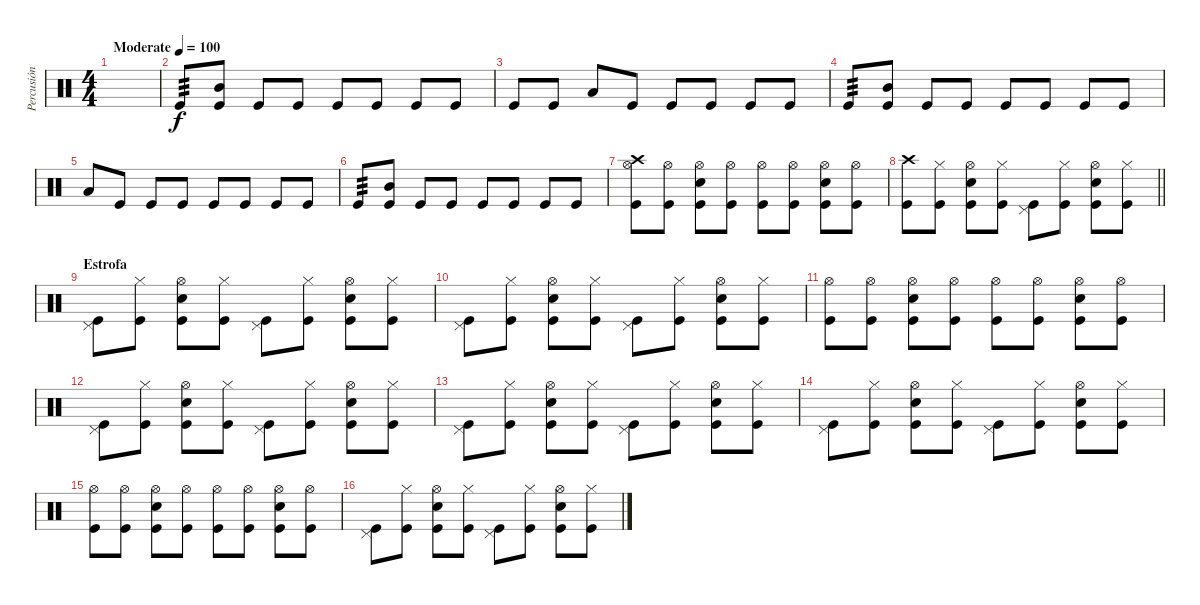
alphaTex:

\track ("Percusión" "Percusión") {instrument percussion}
\staff {score}
\articulation defaults
\ts (4 4)
\tempo (100 "Moderate")
\clef neutral
\ks c
|
"Kick (hit)".8{tp 3} ("Mid Tom (hit)" "Kick (hit)").8 "Kick (hit)".8 "Kick (hit)".8 "Kick (hit)".8 "Kick (hit)".8 "Kick (hit)".8 "Kick (hit)".8 |
"Kick (hit)".8 "Kick (hit)".8 "Low Tom (hit)".8 "Kick (hit)".8 "Kick (hit)".8 "Kick (hit)".8 "Kick (hit)".8 "Kick (hit)".8 |
"Kick (hit)".8{tp 3} ("Mid Tom (hit)" "Kick (hit)").8 "Kick (hit)".8 "Kick (hit)".8 "Kick (hit)".8 "Kick (hit)".8 "Kick (hit)".8 "Kick (hit)".8 |
"Low Tom (hit)".8 "Kick (hit)".8 "Kick (hit)".8 "Kick (hit)".8 "Kick (hit)".8 "Kick (hit)".8 "Kick (hit)".8 "Kick (hit)".8 |
"Kick (hit)".8{tp 3} ("Mid Tom (hit)" "Kick (hit)").8 "Kick (hit)".8 "Kick (hit)".8 "Kick (hit)".8 "Kick (hit)".8 "Kick (hit)".8 "Kick (hit)".8 |
("Kick (hit)" "Hi-Hat (open)" "Crash high (hit)").8 ("Kick (hit)" "Hi-Hat (open)").8 ("Snare (hit) 2" "Kick (hit)" "Hi-Hat (open)").8 ("Kick (hit)" "Hi-Hat (open)").8 ("Kick (hit)" "Hi-Hat (open)").8 ("Kick (hit)" "Hi-Hat (open)").8 ("Snare (hit) 2" "Kick (hit)" "Hi-Hat (open)").8 ("Kick (hit)" "Hi-Hat (open)").8 |
\barLineRight lightlight
("Kick (hit)" "Crash high (hit)").8 ("Kick (hit)" "Hi-Hat (closed)").8 ("Snare (hit) 2" "Kick (hit)" "Hi-Hat (open)").8 ("Kick (hit)" "Hi-Hat (closed)").8 ("Kick (hit)" "Pedal Hi-Hat (hit)").8 ("Kick (hit)" "Hi-Hat (closed)").8 ("Snare (hit) 2" "Kick (hit)" "Hi-Hat (open)").8 ("Kick (hit)" "Hi-Hat (closed)").8 |
\section ("" "Estrofa")
("Kick (hit)" "Pedal Hi-Hat (hit)").8 ("Kick (hit)" "Hi-Hat (closed)").8 ("Snare (hit) 2" "Kick (hit)" "Hi-Hat (open)").8 ("Kick (hit)" "Hi-Hat (closed)").8 ("Kick (hit)" "Pedal Hi-Hat (hit)").8 ("Kick (hit)" "Hi-Hat (closed)").8 ("Snare (hit) 2" "Kick (hit)" "Hi-Hat (open)").8 ("Kick (hit)" "Hi-Hat (closed)").8 |
("Kick (hit)" "Pedal Hi-Hat (hit)").8 ("Kick (hit)" "Hi-Hat (closed)").8 ("Snare (hit) 2" "Kick (hit)" "Hi-Hat (open)").8 ("Kick (hit)" "Hi-Hat (closed)").8 ("Kick (hit)" "Pedal Hi-Hat (hit)").8 ("Kick (hit)" "Hi-Hat (closed)").8 ("Snare (hit) 2" "Kick (hit)" "Hi-Hat (open)").8 ("Kick (hit)" "Hi-Hat (closed)").8 |
("Kick (hit)" "Hi-Hat (open)").8 ("Kick (hit)" "Hi-Hat (open)").8 ("Snare (hit) 2" "Kick (hit)" "Hi-Hat (open)").8 ("Kick (hit)" "Hi-Hat (open)").8 ("Kick (hit)" "Hi-Hat (open)").8 ("Kick (hit)" "Hi-Hat (open)").8 ("Snare (hit) 2" "Kick (hit)" "Hi-Hat (open)").8 ("Kick (hit)" "Hi-Hat (open)").8 |
("Kick (hit)" "Pedal Hi-Hat (hit)").8 ("Kick (hit)" "Hi-Hat (closed)").8 ("Snare (hit) 2" "Kick (hit)" "Hi-Hat (open)").8 ("Kick (hit)" "Hi-Hat (closed)").8 ("Kick (hit)" "Pedal Hi-Hat (hit)").8 ("Kick (hit)" "Hi-Hat (closed)").8 ("Snare (hit) 2" "Kick (hit)" "Hi-Hat (open)").8 ("Kick (hit)" "Hi-Hat (closed)").8 |
("Kick (hit)" "Pedal Hi-Hat (hit)").8 ("Kick (hit)" "Hi-Hat (closed)").8 ("Snare (hit) 2" "Kick (hit)" "Hi-Hat (open)").8 ("Kick (hit)" "Hi-Hat (closed)").8 ("Kick (hit)" "Pedal Hi-Hat (hit)").8 ("Kick (hit)" "Hi-Hat (closed)").8 ("Snare (hit) 2" "Kick (hit)" "Hi-Hat (open)").8 ("Kick (hit)" "Hi-Hat (closed)").8 |
("Kick (hit)" "Pedal Hi-Hat (hit)").8 ("Kick (hit)" "Hi-Hat (closed)").8 ("Snare (hit) 2" "Kick (hit)" "Hi-Hat (open)").8 ("Kick (hit)" "Hi-Hat (closed)").8 ("Kick (hit)" "Pedal Hi-Hat (hit)").8 ("Kick (hit)" "Hi-Hat (closed)").8 ("Snare (hit) 2" "Kick (hit)" "Hi-Hat (open)").8 ("Kick (hit)" "Hi-Hat (closed)").8 |
("Kick (hit)" "Hi-Hat (open)").8 ("Kick (hit)" "Hi-Hat (open)").8 ("Snare (hit) 2" "Kick (hit)" "Hi-Hat (open)").8 ("Kick (hit)" "Hi-Hat (open)").8 ("Kick (hit)" "Hi-Hat (open)").8 ("Kick (hit)" "Hi-Hat (open)").8 ("Snare (hit) 2" "Kick (hit)" "Hi-Hat (open)").8 ("Kick (hit)" "Hi-Hat (open)").8 |
("Kick (hit)" "Pedal Hi-Hat (hit)").8 ("Kick (hit)" "Hi-Hat (closed)").8 ("Snare (hit) 2" "Kick (hit)" "Hi-Hat (open)").8 ("Kick (hit)" "Hi-Hat (closed)").8 ("Kick (hit)" "Pedal Hi-Hat (hit)").8 ("Kick (hit)" "Hi-Hat (closed)").8 ("Snare (hit) 2" "Kick (hit)" "Hi-Hat (open)").8 ("Kick (hit)" "Hi-Hat (closed)").8
